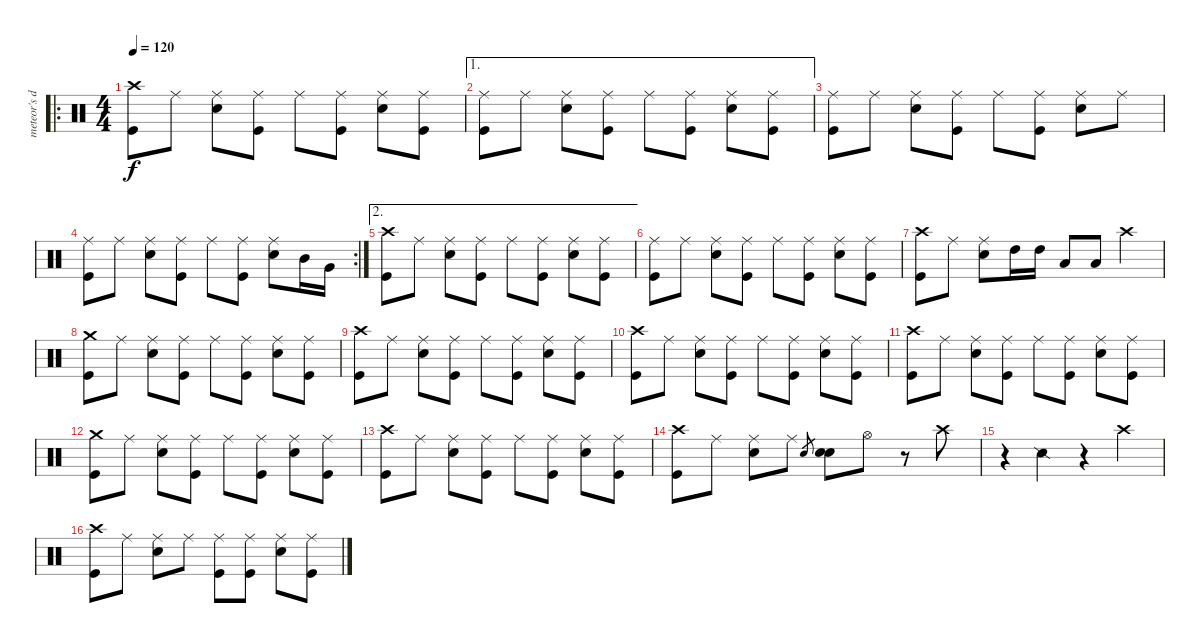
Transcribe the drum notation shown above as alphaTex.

\track ("meteor's drum:)" "meteor's d") {instrument percussion}
\staff {score}
\articulation defaults
\ro
\ts (4 4)
\tempo 120
\clef neutral
\ks c
("Crash high (hit)" "Kick (hit)").8{dy f} "Ride (middle)".8 ("Snare (hit) 2" "Ride (middle)").8 ("Kick (hit)" "Ride (middle)").8 "Ride (middle)".8 ("Kick (hit)" "Ride (middle)").8 ("Ride (middle)" "Snare (hit) 2").8 ("Kick (hit)" "Ride (middle)").8 |
\ae 1
("Ride (middle)" "Kick (hit)").8 "Ride (middle)".8 ("Snare (hit) 2" "Ride (middle)").8 ("Kick (hit)" "Ride (middle)").8 "Ride (middle)".8 ("Kick (hit)" "Ride (middle)").8 ("Ride (middle)" "Snare (hit) 2").8 ("Kick (hit)" "Ride (middle)").8 |
("Ride (middle)" "Kick (hit)").8 "Ride (middle)".8 ("Snare (hit) 2" "Ride (middle)").8 ("Kick (hit)" "Ride (middle)").8 "Ride (middle)".8 ("Kick (hit)" "Ride (middle)").8 ("Ride (middle)" "Snare (hit) 2").8 "Ride (middle)".8 |
\rc 2
("Ride (middle)" "Kick (hit)").8 "Ride (middle)".8 ("Snare (hit) 2" "Ride (middle)").8 ("Kick (hit)" "Ride (middle)").8 "Ride (middle)".8 ("Kick (hit)" "Ride (middle)").8 ("Ride (middle)" "Snare (hit) 2").8 "Mid Tom (hit)".16 "Very Low Tom (hit)".16 |
\ae 2
("Crash high (hit)" "Kick (hit)").8 "Ride (middle)".8 ("Snare (hit) 2" "Ride (middle)").8 ("Kick (hit)" "Ride (middle)").8 "Ride (middle)".8 ("Kick (hit)" "Ride (middle)").8 ("Ride (middle)" "Snare (hit) 2").8 ("Kick (hit)" "Ride (middle)").8 |
("Ride (middle)" "Kick (hit)").8 "Ride (middle)".8 ("Snare (hit) 2" "Ride (middle)").8 ("Kick (hit)" "Ride (middle)").8 "Ride (middle)".8 ("Kick (hit)" "Ride (middle)").8 ("Ride (middle)" "Snare (hit) 2").8 ("Kick (hit)" "Ride (middle)").8 |
("Crash high (hit)" "Kick (hit)").8 "Ride (middle)".8 ("Ride (middle)" "Snare (hit) 2").8 "High Tom (hit)".16 "High Tom (hit)".16 "Low Tom (hit)".8 "Low Tom (hit)".8 "Crash high (hit)".4 |
("Crash medium (hit)" "Kick (hit)").8 "Ride (middle)".8 ("Snare (hit) 2" "Ride (middle)").8 ("Kick (hit)" "Ride (middle)").8 "Ride (middle)".8 ("Kick (hit)" "Ride (middle)").8 ("Ride (middle)" "Snare (hit) 2").8 ("Kick (hit)" "Ride (middle)").8 |
("Crash high (hit)" "Kick (hit)").8 "Ride (middle)".8 ("Snare (hit) 2" "Ride (middle)").8 ("Kick (hit)" "Ride (middle)").8 "Ride (middle)".8 ("Kick (hit)" "Ride (middle)").8 ("Ride (middle)" "Snare (hit) 2").8 ("Kick (hit)" "Ride (middle)").8 |
("Crash high (hit)" "Kick (hit)").8 "Ride (middle)".8 ("Snare (hit) 2" "Ride (middle)").8 ("Kick (hit)" "Ride (middle)").8 "Ride (middle)".8 ("Kick (hit)" "Ride (middle)").8 ("Ride (middle)" "Snare (hit) 2").8 ("Kick (hit)" "Ride (middle)").8 |
("Crash high (hit)" "Kick (hit)").8 "Ride (middle)".8 ("Snare (hit) 2" "Ride (middle)").8 ("Kick (hit)" "Ride (middle)").8 "Ride (middle)".8 ("Kick (hit)" "Ride (middle)").8 ("Ride (middle)" "Snare (hit) 2").8 ("Kick (hit)" "Ride (middle)").8 |
("Crash medium (hit)" "Kick (hit)").8 "Ride (middle)".8 ("Snare (hit) 2" "Ride (middle)").8 ("Kick (hit)" "Ride (middle)").8 "Ride (middle)".8 ("Kick (hit)" "Ride (middle)").8 ("Ride (middle)" "Snare (hit) 2").8 ("Kick (hit)" "Ride (middle)").8 |
("Crash high (hit)" "Kick (hit)").8 "Ride (middle)".8 ("Snare (hit) 2" "Ride (middle)").8 ("Kick (hit)" "Ride (middle)").8 "Ride (middle)".8 ("Kick (hit)" "Ride (middle)").8 ("Ride (middle)" "Snare (hit) 2").8 ("Kick (hit)" "Ride (middle)").8 |
("Kick (hit)" "Crash high (hit)").8 "Ride (middle)".8 ("Snare (hit) 2" "Ride (middle)").8 "Ride (middle)".8 "Snare (hit) 2".8{gr} ("Snare (hit) 2" "Snare (hit) 2").8 "Hi-Hat (open)".8 r.8 "Crash high (hit)".8 |
r.4 "Snare (side stick) 2".4 r.4 "Crash high (hit)".4 |
("Crash high (hit)" "Kick (hit)").8 "Ride (middle)".8 ("Ride (middle)" "Snare (hit) 2").8 "Ride (middle)".8 ("Ride (middle)" "Kick (hit)").8 ("Ride (middle)" "Kick (hit)").8 ("Ride (middle)" "Snare (hit) 2").8 ("Ride (middle)" "Kick (hit)").8
